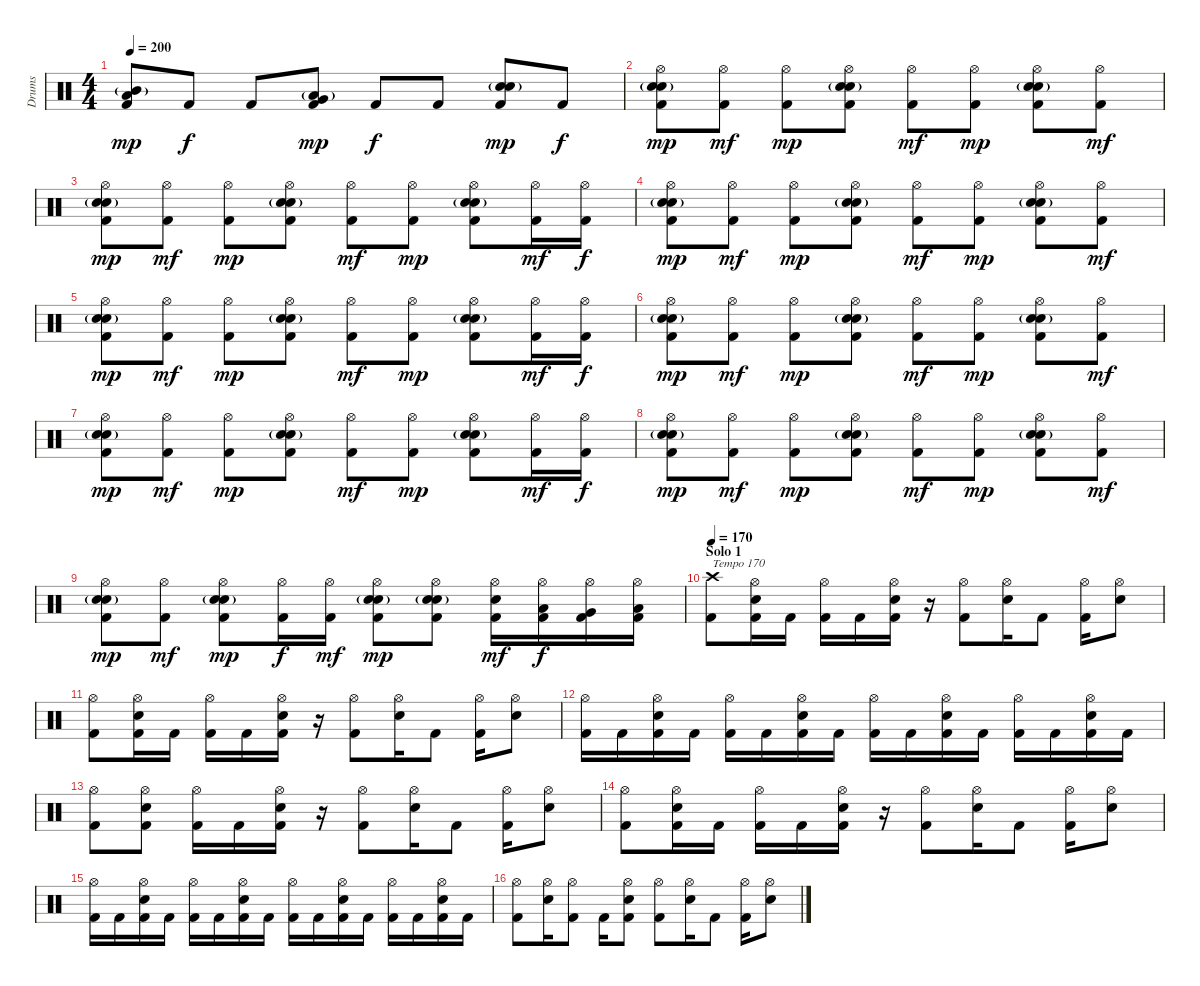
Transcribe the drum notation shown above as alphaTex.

\track ("Drums" "Drums") {instrument percussion}
\staff {score}
\articulation defaults
\ts (4 4)
\tempo 200
\clef neutral
\ks c
("Mid Tom (hit)"{g} "Low Tom (hit)" "Kick (hit) 2").8{dy mp} "Kick (hit) 2".8{dy f} "Kick (hit) 2".8 ("Low Tom (hit)"{g} "Very Low Tom (hit)" "Kick (hit) 2").8{dy mp} "Kick (hit) 2".8{dy f} "Kick (hit) 2".8 ("Electric Snare (hit)"{g} "Snare (hit) 2" "Kick (hit) 2").8{dy mp} "Kick (hit) 2".8{dy f} |
("Hi-Hat (open)" "Electric Snare (hit)"{g} "Snare (hit) 2" "Kick (hit) 2").8{dy mp} ("Hi-Hat (open)" "Kick (hit) 2").8{dy mf} ("Hi-Hat (open)" "Kick (hit) 2").8{dy mp} ("Hi-Hat (open)" "Electric Snare (hit)"{g} "Snare (hit) 2" "Kick (hit) 2").8 ("Hi-Hat (open)" "Kick (hit) 2").8{dy mf} ("Hi-Hat (open)" "Kick (hit) 2").8{dy mp} ("Hi-Hat (open)" "Electric Snare (hit)"{g} "Snare (hit) 2" "Kick (hit) 2").8 ("Hi-Hat (open)" "Kick (hit) 2").8{dy mf} |
("Hi-Hat (open)" "Electric Snare (hit)"{g} "Snare (hit) 2" "Kick (hit) 2").8{dy mp} ("Hi-Hat (open)" "Kick (hit) 2").8{dy mf} ("Hi-Hat (open)" "Kick (hit) 2").8{dy mp} ("Hi-Hat (open)" "Electric Snare (hit)"{g} "Snare (hit) 2" "Kick (hit) 2").8 ("Hi-Hat (open)" "Kick (hit) 2").8{dy mf} ("Hi-Hat (open)" "Kick (hit) 2").8{dy mp} ("Hi-Hat (open)" "Electric Snare (hit)"{g} "Snare (hit) 2" "Kick (hit) 2").8 ("Hi-Hat (open)" "Kick (hit) 2").16{dy mf} ("Hi-Hat (open)" "Kick (hit) 2").16{dy f} |
("Hi-Hat (open)" "Electric Snare (hit)"{g} "Snare (hit) 2" "Kick (hit) 2").8{dy mp} ("Hi-Hat (open)" "Kick (hit) 2").8{dy mf} ("Hi-Hat (open)" "Kick (hit) 2").8{dy mp} ("Hi-Hat (open)" "Electric Snare (hit)"{g} "Snare (hit) 2" "Kick (hit) 2").8 ("Hi-Hat (open)" "Kick (hit) 2").8{dy mf} ("Hi-Hat (open)" "Kick (hit) 2").8{dy mp} ("Hi-Hat (open)" "Electric Snare (hit)"{g} "Snare (hit) 2" "Kick (hit) 2").8 ("Hi-Hat (open)" "Kick (hit) 2").8{dy mf} |
("Hi-Hat (open)" "Electric Snare (hit)"{g} "Snare (hit) 2" "Kick (hit) 2").8{dy mp} ("Hi-Hat (open)" "Kick (hit) 2").8{dy mf} ("Hi-Hat (open)" "Kick (hit) 2").8{dy mp} ("Hi-Hat (open)" "Electric Snare (hit)"{g} "Snare (hit) 2" "Kick (hit) 2").8 ("Hi-Hat (open)" "Kick (hit) 2").8{dy mf} ("Hi-Hat (open)" "Kick (hit) 2").8{dy mp} ("Hi-Hat (open)" "Electric Snare (hit)"{g} "Snare (hit) 2" "Kick (hit) 2").8 ("Hi-Hat (open)" "Kick (hit) 2").16{dy mf} ("Hi-Hat (open)" "Kick (hit) 2").16{dy f} |
("Hi-Hat (open)" "Electric Snare (hit)"{g} "Snare (hit) 2" "Kick (hit) 2").8{dy mp} ("Hi-Hat (open)" "Kick (hit) 2").8{dy mf} ("Hi-Hat (open)" "Kick (hit) 2").8{dy mp} ("Hi-Hat (open)" "Electric Snare (hit)"{g} "Snare (hit) 2" "Kick (hit) 2").8 ("Hi-Hat (open)" "Kick (hit) 2").8{dy mf} ("Hi-Hat (open)" "Kick (hit) 2").8{dy mp} ("Hi-Hat (open)" "Electric Snare (hit)"{g} "Snare (hit) 2" "Kick (hit) 2").8 ("Hi-Hat (open)" "Kick (hit) 2").8{dy mf} |
("Hi-Hat (open)" "Electric Snare (hit)"{g} "Snare (hit) 2" "Kick (hit) 2").8{dy mp} ("Hi-Hat (open)" "Kick (hit) 2").8{dy mf} ("Hi-Hat (open)" "Kick (hit) 2").8{dy mp} ("Hi-Hat (open)" "Electric Snare (hit)"{g} "Snare (hit) 2" "Kick (hit) 2").8 ("Hi-Hat (open)" "Kick (hit) 2").8{dy mf} ("Hi-Hat (open)" "Kick (hit) 2").8{dy mp} ("Hi-Hat (open)" "Electric Snare (hit)"{g} "Snare (hit) 2" "Kick (hit) 2").8 ("Hi-Hat (open)" "Kick (hit) 2").16{dy mf} ("Hi-Hat (open)" "Kick (hit) 2").16{dy f} |
("Hi-Hat (open)" "Electric Snare (hit)"{g} "Snare (hit) 2" "Kick (hit) 2").8{dy mp} ("Hi-Hat (open)" "Kick (hit) 2").8{dy mf} ("Hi-Hat (open)" "Kick (hit) 2").8{dy mp} ("Hi-Hat (open)" "Electric Snare (hit)"{g} "Snare (hit) 2" "Kick (hit) 2").8 ("Hi-Hat (open)" "Kick (hit) 2").8{dy mf} ("Hi-Hat (open)" "Kick (hit) 2").8{dy mp} ("Hi-Hat (open)" "Electric Snare (hit)"{g} "Snare (hit) 2" "Kick (hit) 2").8 ("Hi-Hat (open)" "Kick (hit) 2").8{dy mf} |
("Hi-Hat (open)" "Electric Snare (hit)"{g} "Snare (hit) 2" "Kick (hit) 2").8{dy mp} ("Hi-Hat (open)" "Kick (hit) 2").8{dy mf} ("Hi-Hat (open)" "Electric Snare (hit)"{g} "Snare (hit) 2" "Kick (hit) 2").8{dy mp} ("Hi-Hat (open)" "Kick (hit) 2").16{dy f} ("Hi-Hat (open)" "Kick (hit) 2").16{dy mf} ("Hi-Hat (open)" "Electric Snare (hit)"{g} "Snare (hit) 2" "Kick (hit) 2").8{dy mp} ("Hi-Hat (open)" "Electric Snare (hit)"{g} "Snare (hit) 2" "Kick (hit) 2").8 ("Hi-Hat (open)" "Snare (hit) 2" "Kick (hit) 2").16{dy mf} ("Hi-Hat (open)" "Low Tom (hit)" "Kick (hit) 2").16{dy f} ("Hi-Hat (open)" "Very Low Tom (hit)" "Kick (hit) 2").16 ("Hi-Hat (open)" "Low Floor Tom (hit)" "Kick (hit) 2").16 |
\section ("" "Solo 1")
\tempo 170
("Crash high (hit)" "Kick (hit) 2").8{txt "Tempo 170"} ("Hi-Hat (open)" "Snare (hit) 2" "Kick (hit) 2").16 "Kick (hit) 2".16 ("Hi-Hat (open)" "Kick (hit) 2").16 "Kick (hit) 2".16 ("Hi-Hat (open)" "Snare (hit) 2" "Kick (hit) 2").16 r.16 ("Hi-Hat (open)" "Kick (hit) 2").8 ("Hi-Hat (open)" "Snare (hit) 2").16 "Kick (hit) 2".8 ("Hi-Hat (open)" "Kick (hit) 2").16 ("Hi-Hat (open)" "Snare (hit) 2").8 |
("Hi-Hat (open)" "Kick (hit) 2").8 ("Hi-Hat (open)" "Snare (hit) 2" "Kick (hit) 2").16 "Kick (hit) 2".16 ("Hi-Hat (open)" "Kick (hit) 2").16 "Kick (hit) 2".16 ("Hi-Hat (open)" "Snare (hit) 2" "Kick (hit) 2").16 r.16 ("Hi-Hat (open)" "Kick (hit) 2").8 ("Hi-Hat (open)" "Snare (hit) 2").16 "Kick (hit) 2".8 ("Hi-Hat (open)" "Kick (hit) 2").16 ("Hi-Hat (open)" "Snare (hit) 2").8 |
("Hi-Hat (open)" "Kick (hit) 2").16 "Kick (hit) 2".16 ("Hi-Hat (open)" "Snare (hit) 2" "Kick (hit) 2").16 "Kick (hit) 2".16 ("Hi-Hat (open)" "Kick (hit) 2").16 "Kick (hit) 2".16 ("Hi-Hat (open)" "Snare (hit) 2" "Kick (hit) 2").16 "Kick (hit) 2".16 ("Hi-Hat (open)" "Kick (hit) 2").16 "Kick (hit) 2".16 ("Hi-Hat (open)" "Snare (hit) 2" "Kick (hit) 2").16 "Kick (hit) 2".16 ("Hi-Hat (open)" "Kick (hit) 2").16 "Kick (hit) 2".16 ("Hi-Hat (open)" "Snare (hit) 2" "Kick (hit) 2").16 "Kick (hit) 2".16 |
("Hi-Hat (open)" "Kick (hit) 2").8 ("Hi-Hat (open)" "Snare (hit) 2" "Kick (hit) 2").8 ("Hi-Hat (open)" "Kick (hit) 2").16 "Kick (hit) 2".16 ("Hi-Hat (open)" "Snare (hit) 2" "Kick (hit) 2").16 r.16 ("Hi-Hat (open)" "Kick (hit) 2").8 ("Hi-Hat (open)" "Snare (hit) 2").16 "Kick (hit) 2".8 ("Hi-Hat (open)" "Kick (hit) 2").16 ("Hi-Hat (open)" "Snare (hit) 2").8 |
("Hi-Hat (open)" "Kick (hit) 2").8 ("Hi-Hat (open)" "Snare (hit) 2" "Kick (hit) 2").16 "Kick (hit) 2".16 ("Hi-Hat (open)" "Kick (hit) 2").16 "Kick (hit) 2".16 ("Hi-Hat (open)" "Snare (hit) 2" "Kick (hit) 2").16 r.16 ("Hi-Hat (open)" "Kick (hit) 2").8 ("Hi-Hat (open)" "Snare (hit) 2").16 "Kick (hit) 2".8 ("Hi-Hat (open)" "Kick (hit) 2").16 ("Hi-Hat (open)" "Snare (hit) 2").8 |
("Hi-Hat (open)" "Kick (hit) 2").16 "Kick (hit) 2".16 ("Hi-Hat (open)" "Snare (hit) 2" "Kick (hit) 2").16 "Kick (hit) 2".16 ("Hi-Hat (open)" "Kick (hit) 2").16 "Kick (hit) 2".16 ("Hi-Hat (open)" "Snare (hit) 2" "Kick (hit) 2").16 "Kick (hit) 2".16 ("Hi-Hat (open)" "Kick (hit) 2").16 "Kick (hit) 2".16 ("Hi-Hat (open)" "Snare (hit) 2" "Kick (hit) 2").16 "Kick (hit) 2".16 ("Hi-Hat (open)" "Kick (hit) 2").16 "Kick (hit) 2".16 ("Hi-Hat (open)" "Snare (hit) 2" "Kick (hit) 2").16 "Kick (hit) 2".16 |
("Hi-Hat (open)" "Kick (hit) 2").8 ("Hi-Hat (open)" "Snare (hit) 2").16 ("Hi-Hat (open)" "Kick (hit) 2").8 "Kick (hit) 2".16 ("Hi-Hat (open)" "Snare (hit) 2" "Kick (hit) 2").8 ("Hi-Hat (open)" "Kick (hit) 2").8 ("Hi-Hat (open)" "Snare (hit) 2").16 "Kick (hit) 2".8 ("Hi-Hat (open)" "Kick (hit) 2").16 ("Hi-Hat (open)" "Snare (hit) 2").8
